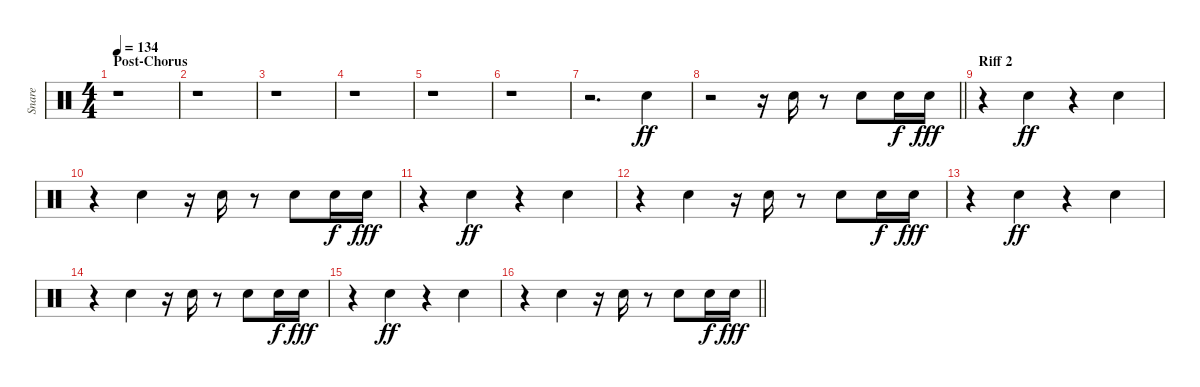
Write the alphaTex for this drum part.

\track ("Snare" "Snare") {instrument percussion}
\staff {score}
\articulation defaults
\ts (4 4)
\section ("" "Post-Chorus")
\tempo 134
\clef neutral
\ks c
r.1{dy ff} |
r.1 |
r.1 |
r.1 |
r.1 |
r.1 |
r.2{d} "Snare (hit) 2".4 |
\barLineRight lightlight
r.2 r.16 "Snare (hit) 2".16 r.8 "Snare (hit) 2".8 "Snare (hit) 2".16{dy f} "Snare (hit) 2".16{dy fff} |
\section ("" "Riff 2")
r.4 "Snare (hit) 2".4{dy ff} r.4 "Snare (hit) 2".4 |
r.4 "Snare (hit) 2".4 r.16 "Snare (hit) 2".16 r.8 "Snare (hit) 2".8 "Snare (hit) 2".16{dy f} "Snare (hit) 2".16{dy fff} |
r.4 "Snare (hit) 2".4{dy ff} r.4 "Snare (hit) 2".4 |
r.4 "Snare (hit) 2".4 r.16 "Snare (hit) 2".16 r.8 "Snare (hit) 2".8 "Snare (hit) 2".16{dy f} "Snare (hit) 2".16{dy fff} |
r.4 "Snare (hit) 2".4{dy ff} r.4 "Snare (hit) 2".4 |
r.4 "Snare (hit) 2".4 r.16 "Snare (hit) 2".16 r.8 "Snare (hit) 2".8 "Snare (hit) 2".16{dy f} "Snare (hit) 2".16{dy fff} |
r.4 "Snare (hit) 2".4{dy ff} r.4 "Snare (hit) 2".4 |
\barLineRight lightlight
r.4 "Snare (hit) 2".4 r.16 "Snare (hit) 2".16 r.8 "Snare (hit) 2".8 "Snare (hit) 2".16{dy f} "Snare (hit) 2".16{dy fff}
